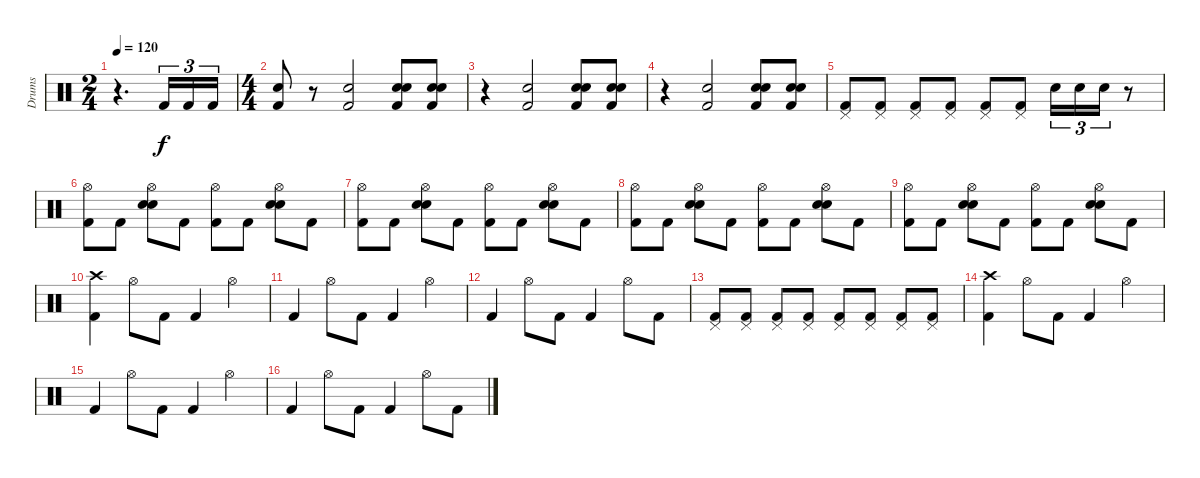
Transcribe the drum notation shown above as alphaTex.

\track ("Drums" "Drums") {instrument percussion}
\staff {score}
\articulation defaults
\ts (2 4)
\tempo 120
\clef neutral
\ks c
r.4{d dy f} "Kick (hit) 2".16{tu (3 2)} "Kick (hit) 2".16{tu (3 2)} "Kick (hit) 2".16{tu (3 2)} |
\ts (4 4)
("Electric Snare (hit)" "Kick (hit) 2").8 r.8 ("Electric Snare (hit)" "Kick (hit) 2").2 ("Electric Snare (hit)" "Snare (hit) 2" "Kick (hit) 2").8 ("Electric Snare (hit)" "Snare (hit) 2" "Kick (hit) 2").8 |
r.4 ("Electric Snare (hit)" "Kick (hit) 2").2 ("Electric Snare (hit)" "Snare (hit) 2" "Kick (hit) 2").8 ("Electric Snare (hit)" "Snare (hit) 2" "Kick (hit) 2").8 |
r.4 ("Electric Snare (hit)" "Kick (hit) 2").2 ("Electric Snare (hit)" "Snare (hit) 2" "Kick (hit) 2").8 ("Electric Snare (hit)" "Snare (hit) 2" "Kick (hit) 2").8 |
("Pedal Hi-Hat (hit)" "Kick (hit) 2").8 ("Pedal Hi-Hat (hit)" "Kick (hit) 2").8 ("Pedal Hi-Hat (hit)" "Kick (hit) 2").8 ("Pedal Hi-Hat (hit)" "Kick (hit) 2").8 ("Pedal Hi-Hat (hit)" "Kick (hit) 2").8 ("Pedal Hi-Hat (hit)" "Kick (hit) 2").8 "Snare (hit) 2".16{tu (3 2)} "Snare (hit) 2".16{tu (3 2)} "Snare (hit) 2".16{tu (3 2)} r.8 |
("Hi-Hat (open)" "Kick (hit) 2").8 "Kick (hit) 2".8 ("Hi-Hat (open)" "Electric Snare (hit)" "Snare (hit) 2").8 "Kick (hit) 2".8 ("Hi-Hat (open)" "Kick (hit) 2").8 "Kick (hit) 2".8 ("Hi-Hat (open)" "Electric Snare (hit)" "Snare (hit) 2").8 "Kick (hit) 2".8 |
("Hi-Hat (open)" "Kick (hit) 2").8 "Kick (hit) 2".8 ("Hi-Hat (open)" "Electric Snare (hit)" "Snare (hit) 2").8 "Kick (hit) 2".8 ("Hi-Hat (open)" "Kick (hit) 2").8 "Kick (hit) 2".8 ("Hi-Hat (open)" "Electric Snare (hit)" "Snare (hit) 2").8 "Kick (hit) 2".8 |
("Hi-Hat (open)" "Kick (hit) 2").8 "Kick (hit) 2".8 ("Hi-Hat (open)" "Electric Snare (hit)" "Snare (hit) 2").8 "Kick (hit) 2".8 ("Hi-Hat (open)" "Kick (hit) 2").8 "Kick (hit) 2".8 ("Hi-Hat (open)" "Electric Snare (hit)" "Snare (hit) 2").8 "Kick (hit) 2".8 |
("Hi-Hat (open)" "Kick (hit) 2").8 "Kick (hit) 2".8 ("Hi-Hat (open)" "Electric Snare (hit)" "Snare (hit) 2").8 "Kick (hit) 2".8 ("Hi-Hat (open)" "Kick (hit) 2").8 "Kick (hit) 2".8 ("Hi-Hat (open)" "Electric Snare (hit)" "Snare (hit) 2").8 "Kick (hit) 2".8 |
("Crash high (hit)" "Kick (hit) 2").4 "Hi-Hat (open)".8 "Kick (hit) 2".8 "Kick (hit) 2".4 "Hi-Hat (open)".4 |
"Kick (hit) 2".4 "Hi-Hat (open)".8 "Kick (hit) 2".8 "Kick (hit) 2".4 "Hi-Hat (open)".4 |
"Kick (hit) 2".4 "Hi-Hat (open)".8 "Kick (hit) 2".8 "Kick (hit) 2".4 "Hi-Hat (open)".8 "Kick (hit) 2".8 |
("Pedal Hi-Hat (hit)" "Kick (hit) 2").8 ("Pedal Hi-Hat (hit)" "Kick (hit) 2").8 ("Pedal Hi-Hat (hit)" "Kick (hit) 2").8 ("Pedal Hi-Hat (hit)" "Kick (hit) 2").8 ("Pedal Hi-Hat (hit)" "Kick (hit) 2").8 ("Pedal Hi-Hat (hit)" "Kick (hit) 2").8 ("Pedal Hi-Hat (hit)" "Kick (hit) 2").8 ("Pedal Hi-Hat (hit)" "Kick (hit) 2").8 |
("Crash high (hit)" "Kick (hit) 2").4 "Hi-Hat (open)".8 "Kick (hit) 2".8 "Kick (hit) 2".4 "Hi-Hat (open)".4 |
"Kick (hit) 2".4 "Hi-Hat (open)".8 "Kick (hit) 2".8 "Kick (hit) 2".4 "Hi-Hat (open)".4 |
"Kick (hit) 2".4 "Hi-Hat (open)".8 "Kick (hit) 2".8 "Kick (hit) 2".4 "Hi-Hat (open)".8 "Kick (hit) 2".8
